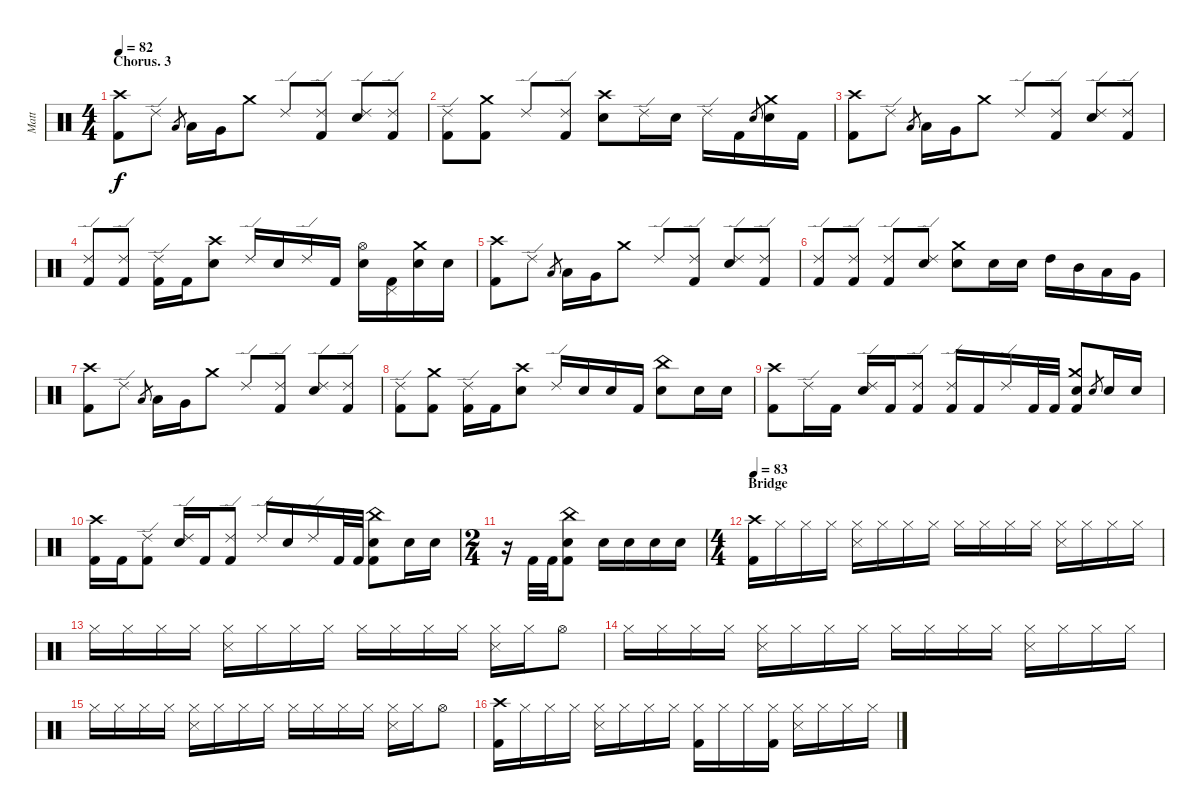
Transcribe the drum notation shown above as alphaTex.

\track ("Matt" "Matt") {instrument percussion}
\staff {score}
\articulation defaults
\ts (4 4)
\section ("" "Chorus. 3")
\tempo 82
\clef neutral
\ks c
("Crash high (hit)" "Kick (hit) 2").8{dy f} "Ride (edge) 2".8 "Low Tom (hit)".8{gr} "Low Tom (hit)".16 "Very Low Tom (hit)".16 "Crash medium (hit)".8 "Ride (edge) 2".8 ("Ride (edge) 2" "Kick (hit) 2").8 ("Ride (edge) 2" "Electric Snare (hit)").8 ("Ride (edge) 2" "Kick (hit) 2").8 |
("Ride (edge) 2" "Kick (hit) 2").8 ("Crash medium (hit)" "Kick (hit) 2").8 "Ride (edge) 2".8 ("Ride (edge) 2" "Kick (hit) 2").8 ("Crash high (hit)" "Electric Snare (hit)").8 "Ride (edge) 2".16 "Electric Snare (hit)".16 "Ride (edge) 2".16 "Kick (hit) 2".16 "Electric Snare (hit)".8{gr} ("Crash medium (hit)" "Electric Snare (hit)").16 "Kick (hit) 2".16 |
("Crash high (hit)" "Kick (hit) 2").8 "Ride (edge) 2".8 "Low Tom (hit)".8{gr} "Low Tom (hit)".16 "Very Low Tom (hit)".16 "Crash medium (hit)".8 "Ride (edge) 2".8 ("Ride (edge) 2" "Kick (hit) 2").8 ("Ride (edge) 2" "Electric Snare (hit)").8 ("Ride (edge) 2" "Kick (hit) 2").8 |
("Ride (edge) 2" "Kick (hit) 2").8 ("Ride (edge) 2" "Kick (hit) 2").8 ("Ride (edge) 2" "Kick (hit) 2").16 "Kick (hit) 2".16 ("Crash high (hit)" "Electric Snare (hit)").8 "Ride (edge) 2".16 "Electric Snare (hit)".16 "Ride (edge) 2".16 "Kick (hit) 2".16 ("Hi-Hat (open)" "Electric Snare (hit)").16 ("Pedal Hi-Hat (hit)" "Kick (hit) 2").16 ("Crash medium (hit)" "Electric Snare (hit)").16 "Electric Snare (hit)".16 |
("Crash high (hit)" "Kick (hit) 2").8 "Ride (edge) 2".8 "Low Tom (hit)".8{gr} "Low Tom (hit)".16 "Very Low Tom (hit)".16 "Crash medium (hit)".8 "Ride (edge) 2".8 ("Ride (edge) 2" "Kick (hit) 2").8 ("Ride (edge) 2" "Electric Snare (hit)").8 ("Ride (edge) 2" "Kick (hit) 2").8 |
("Ride (edge) 2" "Kick (hit) 2").8 ("Ride (edge) 2" "Kick (hit) 2").8 ("Ride (edge) 2" "Kick (hit) 2").8 ("Ride (edge) 2" "Electric Snare (hit)").8 ("Crash medium (hit)" "Electric Snare (hit)").8 "Electric Snare (hit)".16 "Electric Snare (hit)".16 "High Tom (hit)".16 "Mid Tom (hit)".16 "Low Tom (hit)".16 "Very Low Tom (hit)".16 |
("Crash high (hit)" "Kick (hit) 2").8 "Ride (edge) 2".8 "Low Tom (hit)".8{gr} "Low Tom (hit)".16 "Very Low Tom (hit)".16 "Crash medium (hit)".8 "Ride (edge) 2".8 ("Ride (edge) 2" "Kick (hit) 2").8 ("Ride (edge) 2" "Electric Snare (hit)").8 ("Ride (edge) 2" "Kick (hit) 2").8 |
("Ride (edge) 2" "Kick (hit) 2").8 ("Crash medium (hit)" "Kick (hit) 2").8 ("Ride (edge) 2" "Kick (hit) 2").16 "Kick (hit) 2".16 ("Crash high (hit)" "Electric Snare (hit)").8 "Ride (edge) 2".16 "Electric Snare (hit)".16 "Electric Snare (hit)".16 "Kick (hit) 2".16 ("China (hit)" "Electric Snare (hit)").8 "Electric Snare (hit)".16 "Electric Snare (hit)".16 |
("Crash high (hit)" "Kick (hit) 2").8 "Ride (edge) 2".16 "Kick (hit) 2".16 ("Ride (edge) 2" "Electric Snare (hit)").16 "Kick (hit) 2".16 ("Ride (edge) 2" "Kick (hit) 2").8 ("Ride (edge) 2" "Kick (hit) 2").16 "Kick (hit) 2".16 "Ride (edge) 2".16 "Kick (hit) 2".32 "Kick (hit) 2".32 ("Crash medium (hit)" "Electric Snare (hit)" "Kick (hit) 2").8 "Electric Snare (hit)".8{gr} "Electric Snare (hit)".16 "Electric Snare (hit)".16 |
("Crash high (hit)" "Kick (hit) 2").16 "Kick (hit) 2".16 ("Ride (edge) 2" "Kick (hit) 2").8 ("Ride (edge) 2" "Electric Snare (hit)").16 "Kick (hit) 2".16 ("Ride (edge) 2" "Kick (hit) 2").8 "Ride (edge) 2".16 "Electric Snare (hit)".16 "Ride (edge) 2".16 "Kick (hit) 2".32 "Kick (hit) 2".32 ("China (hit)" "Electric Snare (hit)" "Kick (hit) 2").8 "Electric Snare (hit)".16 "Electric Snare (hit)".16 |
\ts (2 4)
r.16 "Kick (hit) 2".32 "Kick (hit) 2".32 ("China (hit)" "Electric Snare (hit)" "Kick (hit) 2").8 "Electric Snare (hit)".16 "Electric Snare (hit)".16 "Electric Snare (hit)".16 "Electric Snare (hit)".16 |
\ts (4 4)
\section ("" "Bridge")
\tempo 83
("Crash high (hit)" "Kick (hit) 2").16 "Hi-Hat (closed)".16 "Hi-Hat (closed)".16 "Hi-Hat (closed)".16 ("Hi-Hat (closed)" "Snare (side stick) 3").16 "Hi-Hat (closed)".16 "Hi-Hat (closed)".16 "Hi-Hat (closed)".16 "Hi-Hat (closed)".16 "Hi-Hat (closed)".16 "Hi-Hat (closed)".16 "Hi-Hat (closed)".16 ("Hi-Hat (closed)" "Snare (side stick) 3").16 "Hi-Hat (closed)".16 "Hi-Hat (closed)".16 "Hi-Hat (closed)".16 |
"Hi-Hat (closed)".16 "Hi-Hat (closed)".16 "Hi-Hat (closed)".16 "Hi-Hat (closed)".16 ("Hi-Hat (closed)" "Snare (side stick) 3").16 "Hi-Hat (closed)".16 "Hi-Hat (closed)".16 "Hi-Hat (closed)".16 "Hi-Hat (closed)".16 "Hi-Hat (closed)".16 "Hi-Hat (closed)".16 "Hi-Hat (closed)".16 ("Hi-Hat (closed)" "Snare (side stick) 3").16 "Hi-Hat (closed)".16 "Hi-Hat (open)".8 |
"Hi-Hat (closed)".16 "Hi-Hat (closed)".16 "Hi-Hat (closed)".16 "Hi-Hat (closed)".16 ("Hi-Hat (closed)" "Snare (side stick) 3").16 "Hi-Hat (closed)".16 "Hi-Hat (closed)".16 "Hi-Hat (closed)".16 "Hi-Hat (closed)".16 "Hi-Hat (closed)".16 "Hi-Hat (closed)".16 "Hi-Hat (closed)".16 ("Hi-Hat (closed)" "Snare (side stick) 3").16 "Hi-Hat (closed)".16 "Hi-Hat (closed)".16 "Hi-Hat (closed)".16 |
"Hi-Hat (closed)".16 "Hi-Hat (closed)".16 "Hi-Hat (closed)".16 "Hi-Hat (closed)".16 ("Hi-Hat (closed)" "Snare (side stick) 3").16 "Hi-Hat (closed)".16 "Hi-Hat (closed)".16 "Hi-Hat (closed)".16 "Hi-Hat (closed)".16 "Hi-Hat (closed)".16 "Hi-Hat (closed)".16 "Hi-Hat (closed)".16 ("Hi-Hat (closed)" "Snare (side stick) 3").16 "Hi-Hat (closed)".16 "Hi-Hat (open)".8 |
("Crash high (hit)" "Kick (hit) 2").16 "Hi-Hat (closed)".16 "Hi-Hat (closed)".16 "Hi-Hat (closed)".16 ("Hi-Hat (closed)" "Snare (side stick) 3").16 "Hi-Hat (closed)".16 "Hi-Hat (closed)".16 "Hi-Hat (closed)".16 ("Hi-Hat (closed)" "Kick (hit) 2").16 "Hi-Hat (closed)".16 "Hi-Hat (closed)".16 ("Hi-Hat (closed)" "Kick (hit) 2").16 ("Hi-Hat (closed)" "Snare (side stick) 3").16 "Hi-Hat (closed)".16 "Hi-Hat (closed)".16 "Hi-Hat (closed)".16
